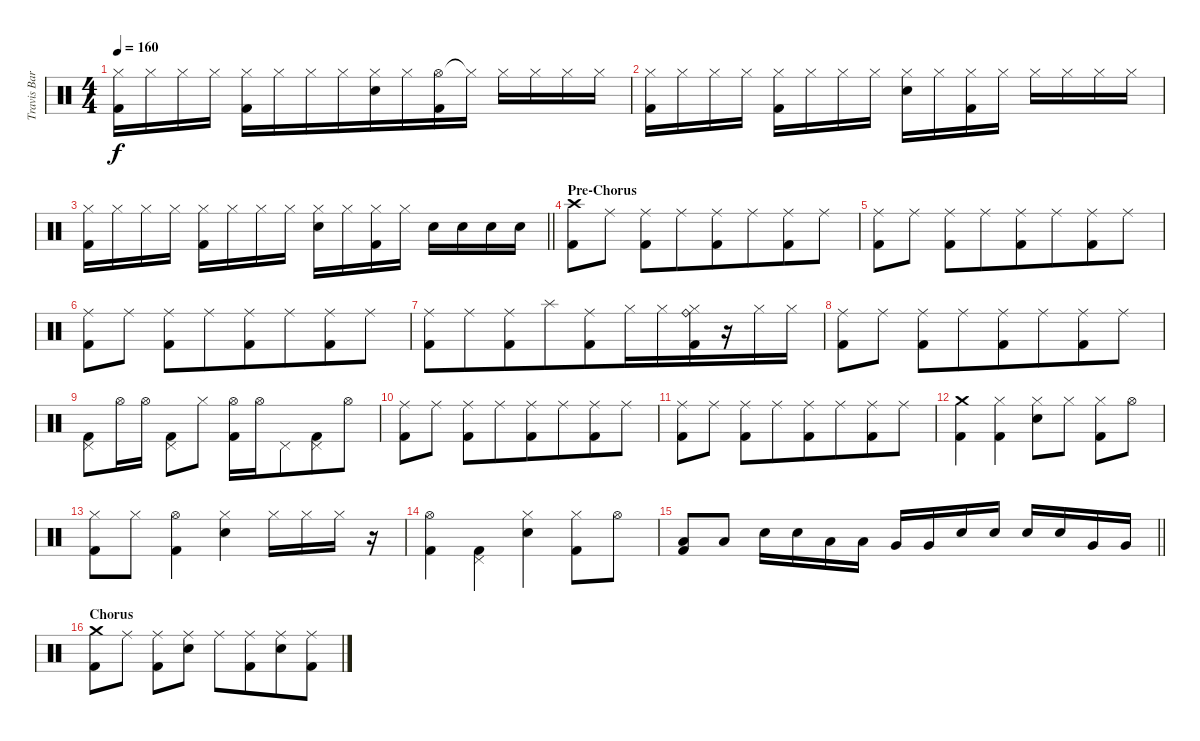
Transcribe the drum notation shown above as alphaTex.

\track ("Travis Barker - Drums" "Travis Bar") {instrument percussion}
\staff {score}
\articulation defaults
\ts (4 4)
\tempo 160
\clef neutral
\ks c
("Hi-Hat (closed)" "Kick (hit) 2").16{dy f} "Hi-Hat (closed)".16{beam merge} "Hi-Hat (closed)".16 "Hi-Hat (closed)".16 ("Hi-Hat (closed)" "Kick (hit) 2").16 "Hi-Hat (closed)".16{beam merge} "Hi-Hat (closed)".16 "Hi-Hat (closed)".16{beam merge} ("Hi-Hat (closed)" "Electric Snare (hit)").16{beam merge} "Hi-Hat (closed)".16 ("Hi-Hat (open)" "Kick (hit) 2").16{beam merge} "Hi-Hat (closed)"{t}.16 "Hi-Hat (closed)".16{beam merge} "Hi-Hat (closed)".16{beam merge} "Hi-Hat (closed)".16{beam merge} "Hi-Hat (closed)".16 |
("Hi-Hat (closed)" "Kick (hit) 2").16{beam merge} "Hi-Hat (closed)".16{beam merge} "Hi-Hat (closed)".16{beam merge} "Hi-Hat (closed)".16 ("Hi-Hat (closed)" "Kick (hit) 2").16 "Hi-Hat (closed)".16{beam merge} "Hi-Hat (closed)".16{beam merge} "Hi-Hat (closed)".16 ("Hi-Hat (closed)" "Electric Snare (hit)").16 "Hi-Hat (closed)".16 ("Hi-Hat (closed)" "Kick (hit) 2").16 "Hi-Hat (closed)".16 "Hi-Hat (closed)".16{beam merge} "Hi-Hat (closed)".16 "Hi-Hat (closed)".16 "Hi-Hat (closed)".16 |
\barLineRight lightlight
("Hi-Hat (closed)" "Kick (hit) 2").16 "Hi-Hat (closed)".16{beam merge} "Hi-Hat (closed)".16 "Hi-Hat (closed)".16 ("Hi-Hat (closed)" "Kick (hit) 2").16 "Hi-Hat (closed)".16{beam merge} "Hi-Hat (closed)".16 "Hi-Hat (closed)".16 ("Hi-Hat (closed)" "Electric Snare (hit)").16 "Hi-Hat (closed)".16 ("Hi-Hat (closed)" "Kick (hit) 2").16 "Hi-Hat (closed)".16 "Electric Snare (hit)".16 "Electric Snare (hit)".16 "Electric Snare (hit)".16 "Electric Snare (hit)".16 |
\section ("" "Pre-Chorus")
("Crash high (hit)" "Kick (hit) 2").8{beam merge} "Ride (middle)".8 ("Ride (middle)" "Kick (hit) 2").8 "Ride (middle)".8{beam merge} ("Ride (middle)" "Kick (hit) 2").8 "Ride (middle)".8{beam merge} ("Ride (middle)" "Kick (hit) 2").8 "Ride (middle)".8 |
("Ride (middle)" "Kick (hit) 2").8{beam merge} "Ride (middle)".8 ("Ride (middle)" "Kick (hit) 2").8 "Ride (middle)".8{beam merge} ("Ride (middle)" "Kick (hit) 2").8 "Ride (middle)".8{beam merge} ("Ride (middle)" "Kick (hit) 2").8 "Ride (middle)".8 |
("Ride (middle)" "Kick (hit) 2").8{beam merge} "Ride (middle)".8 ("Ride (middle)" "Kick (hit) 2").8 "Ride (middle)".8{beam merge} ("Ride (middle)" "Kick (hit) 2").8 "Ride (middle)".8{beam merge} ("Ride (middle)" "Kick (hit) 2").8 "Ride (middle)".8 |
("Ride (middle)" "Kick (hit) 2").8 "Ride (middle)".8{beam merge} ("Ride (middle)" "Kick (hit) 2").8 "Splash (hit)".8{beam merge} ("Ride (middle)" "Kick (hit) 2").8 "Hi-Hat (closed)".16 "Hi-Hat (closed)".16{beam merge} ("Ride (bell)" "Hi-Hat (closed)" "Kick (hit) 2").16 r.16 "Hi-Hat (closed)".16 "Hi-Hat (closed)".16 |
("Ride (middle)" "Kick (hit) 2").8{beam merge} "Ride (middle)".8 ("Ride (middle)" "Kick (hit) 2").8 "Ride (middle)".8{beam merge} ("Ride (middle)" "Kick (hit) 2").8 "Ride (middle)".8{beam merge} ("Ride (middle)" "Kick (hit) 2").8 "Ride (middle)".8 |
("Pedal Hi-Hat (hit)" "Kick (hit) 2").8 "Hi-Hat (open)".16{beam merge} "Hi-Hat (open)".16 ("Pedal Hi-Hat (hit)" "Kick (hit) 2").8 "Hi-Hat (closed)".8 ("Hi-Hat (open)" "Kick (hit) 2").16 "Hi-Hat (open)".16 "Pedal Hi-Hat (hit)".8{beam merge} ("Pedal Hi-Hat (hit)" "Kick (hit) 2").8{beam merge} "Hi-Hat (open)".8 |
("Ride (middle)" "Kick (hit) 2").8{beam merge} "Ride (middle)".8 ("Ride (middle)" "Kick (hit) 2").8 "Ride (middle)".8{beam merge} ("Ride (middle)" "Kick (hit) 2").8 "Ride (middle)".8{beam merge} ("Ride (middle)" "Kick (hit) 2").8 "Ride (middle)".8 |
("Ride (middle)" "Kick (hit) 2").8{beam merge} "Ride (middle)".8 ("Ride (middle)" "Kick (hit) 2").8 "Ride (middle)".8{beam merge} ("Ride (middle)" "Kick (hit) 2").8 "Ride (middle)".8{beam merge} ("Ride (middle)" "Kick (hit) 2").8 "Ride (middle)".8 |
("Crash medium (hit)" "Kick (hit) 2").4 ("Hi-Hat (closed)" "Kick (hit) 2").4{beam merge} ("Hi-Hat (closed)" "Electric Snare (hit)").8{beam merge} "Hi-Hat (closed)".8 ("Hi-Hat (closed)" "Kick (hit) 2").8 "Hi-Hat (open)".8 |
("Hi-Hat (closed)" "Kick (hit) 2").8{beam merge} "Hi-Hat (closed)".8{beam merge} ("Hi-Hat (open)" "Kick (hit) 2").4 ("Hi-Hat (closed)" "Electric Snare (hit)").4{beam merge} "Hi-Hat (closed)".16 "Hi-Hat (closed)".16 "Hi-Hat (closed)".16 r.16 |
("Hi-Hat (open)" "Kick (hit) 2").4 ("Pedal Hi-Hat (hit)" "Kick (hit) 2").4{beam merge} ("Hi-Hat (closed)" "Electric Snare (hit)").4{beam merge} ("Hi-Hat (closed)" "Kick (hit) 2").8 "Hi-Hat (open)".8 |
\barLineRight lightlight
("Low Tom (hit)" "Kick (hit) 2").8 "Low Floor Tom (hit)".8 "Electric Snare (hit)".16{beam merge} "Electric Snare (hit)".16 "Low Tom (hit)".16{beam merge} "Low Tom (hit)".16 "Very Low Tom (hit)".16 "Very Low Tom (hit)".16{beam merge} "Electric Snare (hit)".16 "Electric Snare (hit)".16 "Electric Snare (hit)".16 "Electric Snare (hit)".16 "Very Low Tom (hit)".16 "Very Low Tom (hit)".16 |
\section ("" "Chorus")
("Crash medium (hit)" "Kick (hit) 2").8{beam merge} "Ride (middle)".8 ("Ride (middle)" "Kick (hit) 2").8 ("Ride (middle)" "Electric Snare (hit)").8 "Ride (middle)".8{beam merge} ("Ride (middle)" "Kick (hit) 2").8{beam merge} ("Ride (middle)" "Electric Snare (hit)").8{beam merge} ("Ride (middle)" "Kick (hit) 2").8
